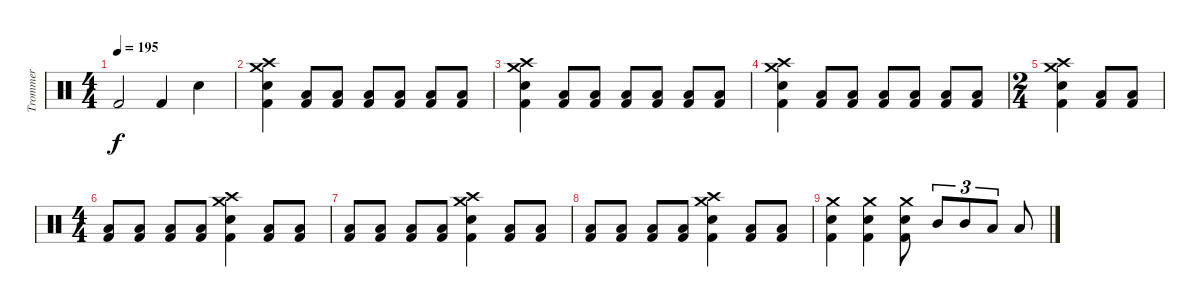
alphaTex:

\track ("Trommer" "Trommer") {instrument percussion}
\staff {score}
\articulation defaults
\ts (4 4)
\tempo 195
\clef neutral
\ks c "Kick (hit) 2".2{dy f} "Kick (hit) 2".4 "Snare (hit) 2".4
|
("Crash high (hit)" "Crash medium (hit)" "Kick (hit) 2" "Snare (hit) 2").4 ("Low Floor Tom (hit)" "Kick (hit) 2").8 ("Low Floor Tom (hit)" "Kick (hit) 2").8 ("Low Floor Tom (hit)" "Kick (hit) 2").8 ("Low Floor Tom (hit)" "Kick (hit) 2").8 ("Low Floor Tom (hit)" "Kick (hit) 2").8 ("Low Floor Tom (hit)" "Kick (hit) 2").8 |
("Kick (hit) 2" "Snare (hit) 2" "Crash medium (hit)" "Crash high (hit)").4 ("Kick (hit) 2" "Low Floor Tom (hit)").8 ("Kick (hit) 2" "Low Floor Tom (hit)").8 ("Kick (hit) 2" "Low Floor Tom (hit)").8 ("Low Floor Tom (hit)" "Kick (hit) 2").8 ("Kick (hit) 2" "Low Floor Tom (hit)").8 ("Kick (hit) 2" "Low Floor Tom (hit)").8 |
("Kick (hit) 2" "Snare (hit) 2" "Crash high (hit)" "Crash medium (hit)").4 ("Kick (hit) 2" "Low Floor Tom (hit)").8 ("Kick (hit) 2" "Low Floor Tom (hit)").8 ("Kick (hit) 2" "Low Floor Tom (hit)").8 ("Kick (hit) 2" "Low Floor Tom (hit)").8 ("Kick (hit) 2" "Low Floor Tom (hit)").8 ("Kick (hit) 2" "Low Floor Tom (hit)").8 |
\ts (2 4)
("Kick (hit) 2" "Snare (hit) 2" "Crash high (hit)" "Crash medium (hit)").4 ("Kick (hit) 2" "Low Floor Tom (hit)").8 ("Kick (hit) 2" "Low Floor Tom (hit)").8 |
\ts (4 4)
("Kick (hit) 2" "Low Floor Tom (hit)").8 ("Kick (hit) 2" "Low Floor Tom (hit)").8 ("Kick (hit) 2" "Low Floor Tom (hit)").8 ("Kick (hit) 2" "Low Floor Tom (hit)").8 ("Kick (hit) 2" "Snare (hit) 2" "Crash medium (hit)" "Crash high (hit)").4 ("Kick (hit) 2" "Low Floor Tom (hit)").8 ("Kick (hit) 2" "Low Floor Tom (hit)").8 |
("Kick (hit) 2" "Low Floor Tom (hit)").8 ("Kick (hit) 2" "Low Floor Tom (hit)").8 ("Kick (hit) 2" "Low Floor Tom (hit)").8 ("Kick (hit) 2" "Low Floor Tom (hit)").8 ("Snare (hit) 2" "Crash high (hit)" "Crash medium (hit)" "Kick (hit) 2").4 ("Kick (hit) 2" "Low Floor Tom (hit)").8 ("Kick (hit) 2" "Low Floor Tom (hit)").8 |
("Kick (hit) 2" "Low Floor Tom (hit)").8 ("Kick (hit) 2" "Low Floor Tom (hit)").8 ("Kick (hit) 2" "Low Floor Tom (hit)").8 ("Kick (hit) 2" "Low Floor Tom (hit)").8 ("Kick (hit) 2" "Snare (hit) 2" "Crash high (hit)" "Crash medium (hit)").4 ("Kick (hit) 2" "Low Floor Tom (hit)").8 ("Kick (hit) 2" "Low Floor Tom (hit)").8 |
("Crash medium (hit)" "Snare (hit) 2" "Kick (hit) 2").4 ("Crash medium (hit)" "Snare (hit) 2" "Kick (hit) 2").4 ("Crash medium (hit)" "Snare (hit) 2" "Kick (hit) 2").8 "Mid Tom (hit)".8{tu (3 2)} "Mid Tom (hit)".8{tu (3 2)} "Low Tom (hit)".8{tu (3 2)} "Low Tom (hit)".8
